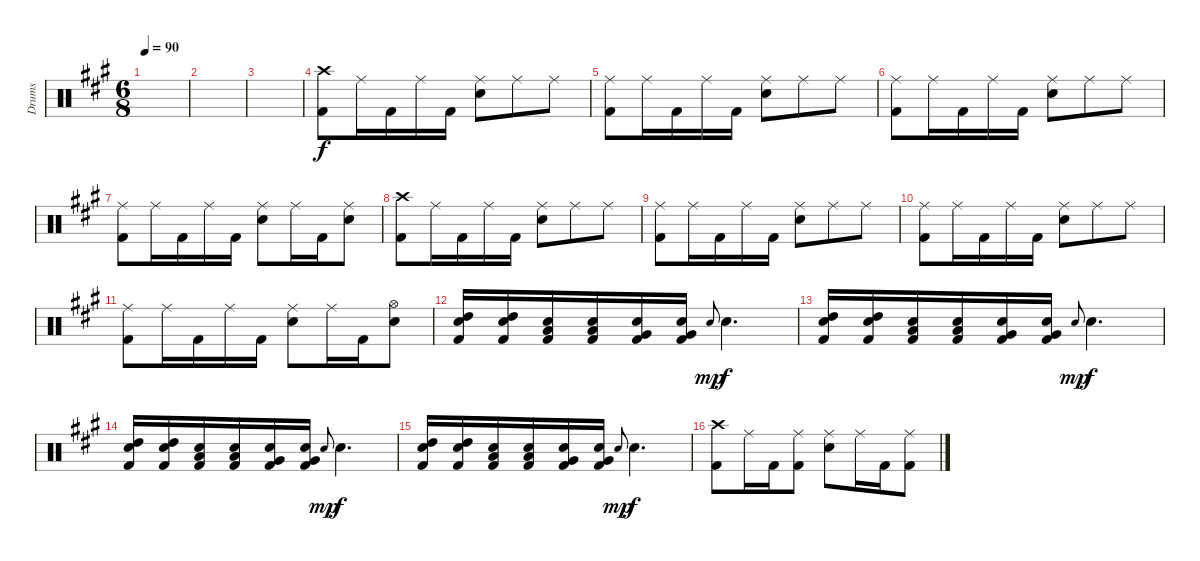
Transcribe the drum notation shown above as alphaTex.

\track ("Drums" "Drums") {instrument percussion}
\staff {score}
\articulation defaults
\ts (6 8)
\tempo 90
\clef neutral
\ks a
|
|
|
("Crash high (hit)" "Kick (hit) 2").8 "Ride (middle)".16 "Kick (hit) 2".16 "Ride (middle)".16 "Kick (hit) 2".16 ("Ride (middle)" "Snare (hit) 2").8 "Ride (middle)".8 "Ride (middle)".8 |
("Ride (middle)" "Kick (hit) 2").8 "Ride (middle)".16 "Kick (hit) 2".16 "Ride (middle)".16 "Kick (hit) 2".16 ("Ride (middle)" "Snare (hit) 2").8 "Ride (middle)".8 "Ride (middle)".8 |
("Ride (middle)" "Kick (hit) 2").8 "Ride (middle)".16 "Kick (hit) 2".16 "Ride (middle)".16 "Kick (hit) 2".16 ("Ride (middle)" "Snare (hit) 2").8 "Ride (middle)".8 "Ride (middle)".8 |
("Ride (middle)" "Kick (hit) 2").8 "Ride (middle)".16 "Kick (hit) 2".16 "Ride (middle)".16 "Kick (hit) 2".16 ("Ride (middle)" "Snare (hit) 2").8 "Ride (middle)".16 "Kick (hit) 2".16 ("Ride (middle)" "Snare (hit) 2").8 |
("Crash high (hit)" "Kick (hit) 2").8 "Ride (middle)".16 "Kick (hit) 2".16 "Ride (middle)".16 "Kick (hit) 2".16 ("Ride (middle)" "Snare (hit) 2").8 "Ride (middle)".8 "Ride (middle)".8 |
("Ride (middle)" "Kick (hit) 2").8 "Ride (middle)".16 "Kick (hit) 2".16 "Ride (middle)".16 "Kick (hit) 2".16 ("Ride (middle)" "Snare (hit) 2").8 "Ride (middle)".8 "Ride (middle)".8 |
("Ride (middle)" "Kick (hit) 2").8 "Ride (middle)".16 "Kick (hit) 2".16 "Ride (middle)".16 "Kick (hit) 2".16 ("Ride (middle)" "Snare (hit) 2").8 "Ride (middle)".8 "Ride (middle)".8 |
("Ride (middle)" "Kick (hit) 2").8 "Ride (middle)".16 "Kick (hit) 2".16 "Ride (middle)".16 "Kick (hit) 2".16 ("Ride (middle)" "Snare (hit) 2").8 "Ride (middle)".16 "Kick (hit) 2".16 ("Hi-Hat (open)" "Snare (hit) 2").8 |
("High Tom (hit)" "Snare (hit) 2" "Kick (hit) 2").16 ("High Tom (hit)" "Snare (hit) 2" "Kick (hit) 2").16 ("Low Tom (hit)" "Snare (hit) 2" "Kick (hit) 2").16 ("Low Tom (hit)" "Snare (hit) 2" "Kick (hit) 2").16 ("Very Low Tom (hit)" "Snare (hit) 2" "Kick (hit) 2").16 ("Very Low Tom (hit)" "Snare (hit) 2" "Kick (hit) 2").16 "Snare (hit) 2".8{gr onbeat dy mp} "Snare (hit) 2".4{d dy f} |
("High Tom (hit)" "Snare (hit) 2" "Kick (hit) 2").16 ("High Tom (hit)" "Snare (hit) 2" "Kick (hit) 2").16 ("Low Tom (hit)" "Snare (hit) 2" "Kick (hit) 2").16 ("Low Tom (hit)" "Snare (hit) 2" "Kick (hit) 2").16 ("Very Low Tom (hit)" "Snare (hit) 2" "Kick (hit) 2").16 ("Very Low Tom (hit)" "Snare (hit) 2" "Kick (hit) 2").16 "Snare (hit) 2".8{gr onbeat dy mp} "Snare (hit) 2".4{d dy f} |
("High Tom (hit)" "Snare (hit) 2" "Kick (hit) 2").16 ("High Tom (hit)" "Snare (hit) 2" "Kick (hit) 2").16 ("Low Tom (hit)" "Snare (hit) 2" "Kick (hit) 2").16 ("Low Tom (hit)" "Snare (hit) 2" "Kick (hit) 2").16 ("Very Low Tom (hit)" "Snare (hit) 2" "Kick (hit) 2").16 ("Very Low Tom (hit)" "Snare (hit) 2" "Kick (hit) 2").16 "Snare (hit) 2".8{gr onbeat dy mp} "Snare (hit) 2".4{d dy f} |
("High Tom (hit)" "Snare (hit) 2" "Kick (hit) 2").16 ("High Tom (hit)" "Snare (hit) 2" "Kick (hit) 2").16 ("Low Tom (hit)" "Snare (hit) 2" "Kick (hit) 2").16 ("Low Tom (hit)" "Snare (hit) 2" "Kick (hit) 2").16 ("Very Low Tom (hit)" "Snare (hit) 2" "Kick (hit) 2").16 ("Very Low Tom (hit)" "Snare (hit) 2" "Kick (hit) 2").16 "Snare (hit) 2".8{gr onbeat dy mp} "Snare (hit) 2".4{d dy f} |
("Crash high (hit)" "Kick (hit) 2").8 "Ride (middle)".16 "Kick (hit) 2".16 ("Ride (middle)" "Kick (hit) 2").8 ("Ride (middle)" "Snare (hit) 2").8 "Ride (middle)".16 "Kick (hit) 2".16 ("Ride (middle)" "Kick (hit) 2").8
